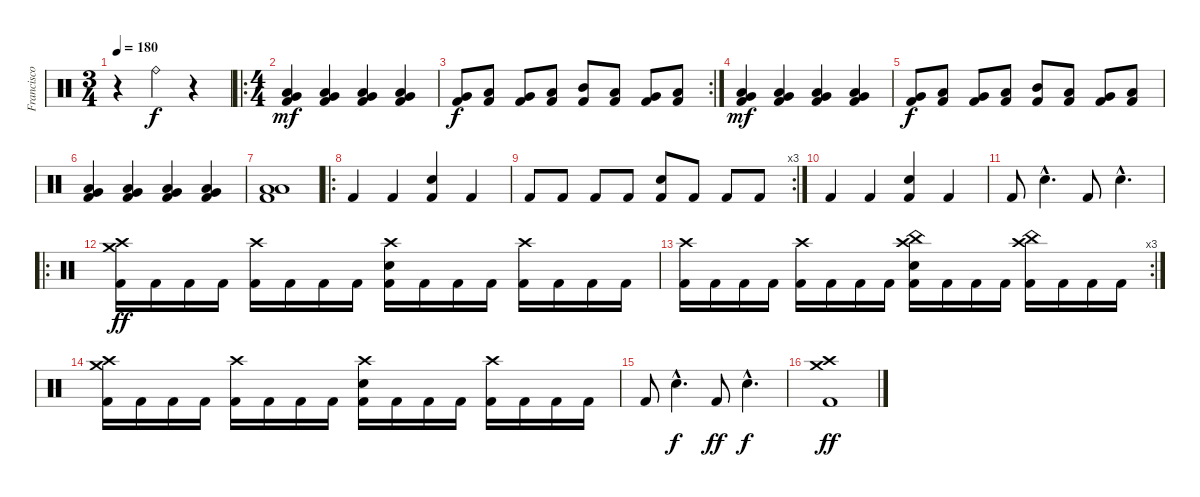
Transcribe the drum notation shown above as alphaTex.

\track ("Francisco Izquierdo (Percusión)" "Francisco ") {instrument percussion}
\staff {score}
\articulation defaults
\ts (3 4)
\tempo 180
\clef neutral
\ks c
r.4{dy f} "Ride (bell)".4 r.4 |
\ro
\ts (4 4)
("Low Tom (hit)" "Very Low Tom (hit)" "Kick (hit) 2").4{dy mf} ("Low Tom (hit)" "Very Low Tom (hit)" "Kick (hit) 2").4 ("Low Tom (hit)" "Very Low Tom (hit)" "Kick (hit) 2").4 ("Low Tom (hit)" "Very Low Tom (hit)" "Kick (hit) 2").4 |
\rc 2
("Very Low Tom (hit)" "Kick (hit) 2").8{dy f} ("Low Tom (hit)" "Kick (hit) 2").8 ("Very Low Tom (hit)" "Kick (hit) 2").8 ("Low Floor Tom (hit)" "Kick (hit) 2").8 ("Mid Tom (hit)" "Kick (hit) 2").8 ("Low Tom (hit)" "Kick (hit) 2").8 ("Very Low Tom (hit)" "Kick (hit) 2").8 ("Low Floor Tom (hit)" "Kick (hit) 2").8 |
("Low Tom (hit)" "Very Low Tom (hit)" "Kick (hit) 2").4{dy mf} ("Low Tom (hit)" "Very Low Tom (hit)" "Kick (hit) 2").4 ("Low Tom (hit)" "Very Low Tom (hit)" "Kick (hit) 2").4 ("Low Tom (hit)" "Very Low Tom (hit)" "Kick (hit) 2").4 |
("Very Low Tom (hit)" "Kick (hit) 2").8{dy f} ("Low Tom (hit)" "Kick (hit) 2").8 ("Very Low Tom (hit)" "Kick (hit) 2").8 ("Low Floor Tom (hit)" "Kick (hit) 2").8 ("Mid Tom (hit)" "Kick (hit) 2").8 ("Low Tom (hit)" "Kick (hit) 2").8 ("Very Low Tom (hit)" "Kick (hit) 2").8 ("Low Floor Tom (hit)" "Kick (hit) 2").8 |
("Low Tom (hit)" "Very Low Tom (hit)" "Kick (hit) 2").4 ("Low Tom (hit)" "Very Low Tom (hit)" "Kick (hit) 2").4 ("Low Tom (hit)" "Very Low Tom (hit)" "Kick (hit) 2").4 ("Low Tom (hit)" "Very Low Tom (hit)" "Kick (hit) 2").4 |
("Low Tom (hit)" "Low Floor Tom (hit)" "Kick (hit) 2").1 |
\ro "Kick (hit) 2".4 "Kick (hit) 2".4
("Electric Snare (hit)" "Kick (hit) 2").4 "Kick (hit) 2".4 |
\rc 3 "Kick (hit) 2".8 "Kick (hit) 2".8 "Kick (hit) 2".8 "Kick (hit) 2".8
("Electric Snare (hit)" "Kick (hit) 2").8 "Kick (hit) 2".8 "Kick (hit) 2".8 "Kick (hit) 2".8 |
"Kick (hit) 2".4 "Kick (hit) 2".4 ("Electric Snare (hit)" "Kick (hit) 2").4 "Kick (hit) 2".4 |
"Kick (hit) 2".8 "Electric Snare (hit)"{hac}.4{d} "Kick (hit) 2".8 "Electric Snare (hit)"{hac}.4{d} |
\ro
("Crash high (hit)" "Crash medium (hit)" "Kick (hit) 2").16{dy ff} "Kick (hit) 2".16 "Kick (hit) 2".16 "Kick (hit) 2".16 ("Crash high (hit)" "Kick (hit) 2").16 "Kick (hit) 2".16 "Kick (hit) 2".16 "Kick (hit) 2".16 ("Crash high (hit)" "Electric Snare (hit)" "Kick (hit) 2").16 "Kick (hit) 2".16 "Kick (hit) 2".16 "Kick (hit) 2".16 ("Crash high (hit)" "Kick (hit) 2").16 "Kick (hit) 2".16 "Kick (hit) 2".16 "Kick (hit) 2".16 |
\rc 3
("Crash high (hit)" "Kick (hit) 2").16 "Kick (hit) 2".16 "Kick (hit) 2".16 "Kick (hit) 2".16 ("Crash high (hit)" "Kick (hit) 2").16 "Kick (hit) 2".16 "Kick (hit) 2".16 "Kick (hit) 2".16 ("Crash high (hit)" "China (hit)" "Electric Snare (hit)" "Kick (hit) 2").16 "Kick (hit) 2".16 "Kick (hit) 2".16 "Kick (hit) 2".16 ("Crash high (hit)" "China (hit)" "Kick (hit) 2").16 "Kick (hit) 2".16 "Kick (hit) 2".16 "Kick (hit) 2".16 |
("Crash high (hit)" "Crash medium (hit)" "Kick (hit) 2").16 "Kick (hit) 2".16 "Kick (hit) 2".16 "Kick (hit) 2".16 ("Crash high (hit)" "Kick (hit) 2").16 "Kick (hit) 2".16 "Kick (hit) 2".16 "Kick (hit) 2".16 ("Crash high (hit)" "Electric Snare (hit)" "Kick (hit) 2").16 "Kick (hit) 2".16 "Kick (hit) 2".16 "Kick (hit) 2".16 ("Crash high (hit)" "Kick (hit) 2").16 "Kick (hit) 2".16 "Kick (hit) 2".16 "Kick (hit) 2".16 |
"Kick (hit) 2".8 "Electric Snare (hit)"{hac}.4{d dy f} "Kick (hit) 2".8{dy ff} "Electric Snare (hit)"{hac}.4{d dy f} |
("Crash high (hit)" "Crash medium (hit)" "Kick (hit) 2").1{dy ff}
